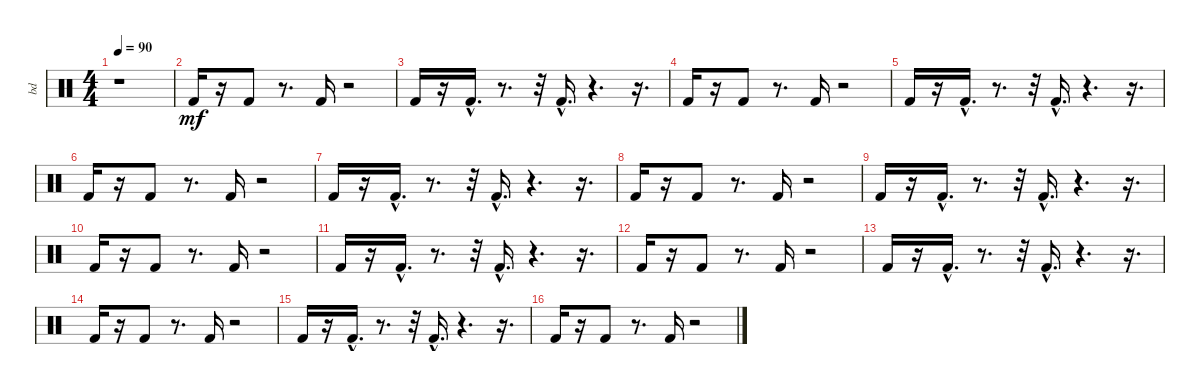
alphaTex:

\track ("bd" "bd") {instrument percussion}
\staff {score}
\articulation defaults
\ts (4 4)
\tempo 90
\clef neutral
\ks c
r.1{dy mf} |
"Kick (hit) 2".16 r.16 "Kick (hit) 2".8 r.8{d} "Kick (hit) 2".16 r.2 |
"Kick (hit) 2".16 r.16 "Kick (hit) 2"{hac}.16{d} r.8{d} r.32 "Kick (hit) 2"{hac}.16{d} r.4{d} r.16{d} |
"Kick (hit) 2".16 r.16 "Kick (hit) 2".8 r.8{d} "Kick (hit) 2".16 r.2 |
"Kick (hit) 2".16 r.16 "Kick (hit) 2"{hac}.16{d} r.8{d} r.32 "Kick (hit) 2"{hac}.16{d} r.4{d} r.16{d} |
"Kick (hit) 2".16 r.16 "Kick (hit) 2".8 r.8{d} "Kick (hit) 2".16 r.2 |
"Kick (hit) 2".16 r.16 "Kick (hit) 2"{hac}.16{d} r.8{d} r.32 "Kick (hit) 2"{hac}.16{d} r.4{d} r.16{d} |
"Kick (hit) 2".16 r.16 "Kick (hit) 2".8 r.8{d} "Kick (hit) 2".16 r.2 |
"Kick (hit) 2".16 r.16 "Kick (hit) 2"{hac}.16{d} r.8{d} r.32 "Kick (hit) 2"{hac}.16{d} r.4{d} r.16{d} |
"Kick (hit) 2".16 r.16 "Kick (hit) 2".8 r.8{d} "Kick (hit) 2".16 r.2 |
"Kick (hit) 2".16 r.16 "Kick (hit) 2"{hac}.16{d} r.8{d} r.32 "Kick (hit) 2"{hac}.16{d} r.4{d} r.16{d} |
"Kick (hit) 2".16 r.16 "Kick (hit) 2".8 r.8{d} "Kick (hit) 2".16 r.2 |
"Kick (hit) 2".16 r.16 "Kick (hit) 2"{hac}.16{d} r.8{d} r.32 "Kick (hit) 2"{hac}.16{d} r.4{d} r.16{d} |
"Kick (hit) 2".16 r.16 "Kick (hit) 2".8 r.8{d} "Kick (hit) 2".16 r.2 |
"Kick (hit) 2".16 r.16 "Kick (hit) 2"{hac}.16{d} r.8{d} r.32 "Kick (hit) 2"{hac}.16{d} r.4{d} r.16{d} |
"Kick (hit) 2".16 r.16 "Kick (hit) 2".8 r.8{d} "Kick (hit) 2".16 r.2
